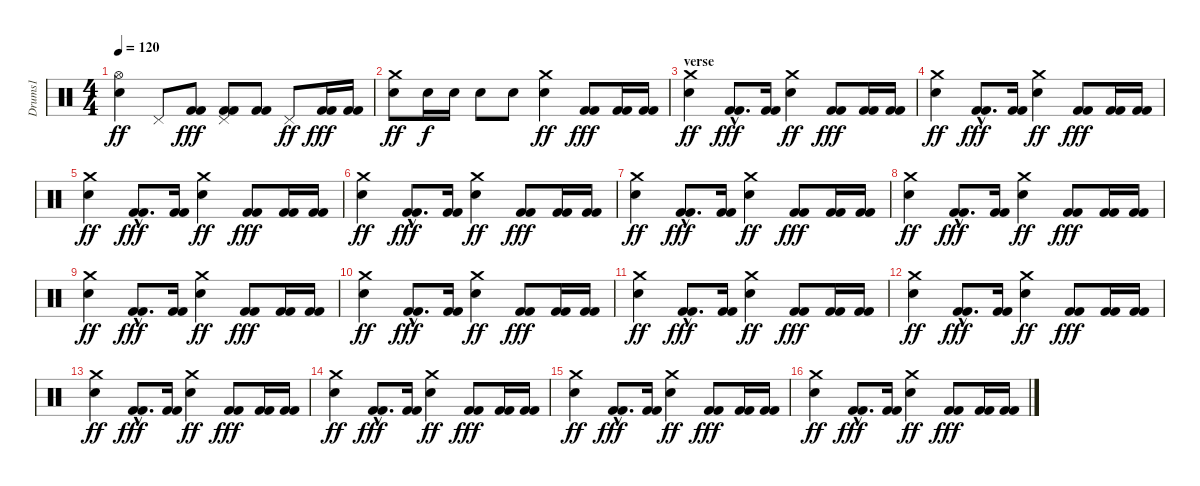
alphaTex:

\track ("Drums1" "Drums1") {instrument percussion}
\staff {score}
\articulation defaults
\ts (4 4)
\tempo 120
\clef neutral
\ks c
("Hi-Hat (open)" "Electric Snare (hit)").4{dy ff} "Pedal Hi-Hat (hit)".8 ("Kick (hit) 2" "Kick (hit) 2").8{dy fff} ("Pedal Hi-Hat (hit)" "Kick (hit) 2" "Kick (hit) 2").8 ("Kick (hit) 2" "Kick (hit) 2").8 "Pedal Hi-Hat (hit)".8{dy ff} ("Kick (hit) 2" "Kick (hit) 2").16{dy fff} ("Kick (hit) 2" "Kick (hit) 2").16 |
("Electric Snare (hit)" "Crash medium (hit)").8{dy ff} "Electric Snare (hit)".16{dy f} "Electric Snare (hit)".16 "Electric Snare (hit)".8 "Electric Snare (hit)".8 ("Electric Snare (hit)" "Crash medium (hit)").4{dy ff} ("Kick (hit) 2" "Kick (hit) 2").8{dy fff} ("Kick (hit) 2" "Kick (hit) 2").16 ("Kick (hit) 2" "Kick (hit) 2").16 |
\section ("" "verse")
("Crash medium (hit)" "Snare (hit) 2").4{dy ff} ("Kick (hit) 2"{hac} "Kick (hit) 2"{hac}).8{d dy fff} ("Kick (hit) 2" "Kick (hit) 2").16 ("Crash medium (hit)" "Snare (hit) 2").4{dy ff} ("Kick (hit) 2" "Kick (hit) 2").8{dy fff} ("Kick (hit) 2" "Kick (hit) 2").16 ("Kick (hit) 2" "Kick (hit) 2").16 |
("Crash medium (hit)" "Snare (hit) 2").4{dy ff} ("Kick (hit) 2"{hac} "Kick (hit) 2"{hac}).8{d dy fff} ("Kick (hit) 2" "Kick (hit) 2").16 ("Crash medium (hit)" "Snare (hit) 2").4{dy ff} ("Kick (hit) 2" "Kick (hit) 2").8{dy fff} ("Kick (hit) 2" "Kick (hit) 2").16 ("Kick (hit) 2" "Kick (hit) 2").16 |
("Crash medium (hit)" "Snare (hit) 2").4{dy ff} ("Kick (hit) 2"{hac} "Kick (hit) 2"{hac}).8{d dy fff} ("Kick (hit) 2" "Kick (hit) 2").16 ("Crash medium (hit)" "Snare (hit) 2").4{dy ff} ("Kick (hit) 2" "Kick (hit) 2").8{dy fff} ("Kick (hit) 2" "Kick (hit) 2").16 ("Kick (hit) 2" "Kick (hit) 2").16 |
("Crash medium (hit)" "Snare (hit) 2").4{dy ff} ("Kick (hit) 2"{hac} "Kick (hit) 2"{hac}).8{d dy fff} ("Kick (hit) 2" "Kick (hit) 2").16 ("Crash medium (hit)" "Snare (hit) 2").4{dy ff} ("Kick (hit) 2" "Kick (hit) 2").8{dy fff} ("Kick (hit) 2" "Kick (hit) 2").16 ("Kick (hit) 2" "Kick (hit) 2").16 |
("Crash medium (hit)" "Snare (hit) 2").4{dy ff} ("Kick (hit) 2"{hac} "Kick (hit) 2"{hac}).8{d dy fff} ("Kick (hit) 2" "Kick (hit) 2").16 ("Crash medium (hit)" "Snare (hit) 2").4{dy ff} ("Kick (hit) 2" "Kick (hit) 2").8{dy fff} ("Kick (hit) 2" "Kick (hit) 2").16 ("Kick (hit) 2" "Kick (hit) 2").16 |
("Crash medium (hit)" "Snare (hit) 2").4{dy ff} ("Kick (hit) 2"{hac} "Kick (hit) 2"{hac}).8{d dy fff} ("Kick (hit) 2" "Kick (hit) 2").16 ("Crash medium (hit)" "Snare (hit) 2").4{dy ff} ("Kick (hit) 2" "Kick (hit) 2").8{dy fff} ("Kick (hit) 2" "Kick (hit) 2").16 ("Kick (hit) 2" "Kick (hit) 2").16 |
("Crash medium (hit)" "Snare (hit) 2").4{dy ff} ("Kick (hit) 2"{hac} "Kick (hit) 2"{hac}).8{d dy fff} ("Kick (hit) 2" "Kick (hit) 2").16 ("Crash medium (hit)" "Snare (hit) 2").4{dy ff} ("Kick (hit) 2" "Kick (hit) 2").8{dy fff} ("Kick (hit) 2" "Kick (hit) 2").16 ("Kick (hit) 2" "Kick (hit) 2").16 |
("Crash medium (hit)" "Snare (hit) 2").4{dy ff} ("Kick (hit) 2"{hac} "Kick (hit) 2"{hac}).8{d dy fff} ("Kick (hit) 2" "Kick (hit) 2").16 ("Crash medium (hit)" "Snare (hit) 2").4{dy ff} ("Kick (hit) 2" "Kick (hit) 2").8{dy fff} ("Kick (hit) 2" "Kick (hit) 2").16 ("Kick (hit) 2" "Kick (hit) 2").16 |
("Crash medium (hit)" "Snare (hit) 2").4{dy ff} ("Kick (hit) 2"{hac} "Kick (hit) 2"{hac}).8{d dy fff} ("Kick (hit) 2" "Kick (hit) 2").16 ("Crash medium (hit)" "Snare (hit) 2").4{dy ff} ("Kick (hit) 2" "Kick (hit) 2").8{dy fff} ("Kick (hit) 2" "Kick (hit) 2").16 ("Kick (hit) 2" "Kick (hit) 2").16 |
("Crash medium (hit)" "Snare (hit) 2").4{dy ff} ("Kick (hit) 2"{hac} "Kick (hit) 2"{hac}).8{d dy fff} ("Kick (hit) 2" "Kick (hit) 2").16 ("Crash medium (hit)" "Snare (hit) 2").4{dy ff} ("Kick (hit) 2" "Kick (hit) 2").8{dy fff} ("Kick (hit) 2" "Kick (hit) 2").16 ("Kick (hit) 2" "Kick (hit) 2").16 |
("Crash medium (hit)" "Snare (hit) 2").4{dy ff} ("Kick (hit) 2"{hac} "Kick (hit) 2"{hac}).8{d dy fff} ("Kick (hit) 2" "Kick (hit) 2").16 ("Crash medium (hit)" "Snare (hit) 2").4{dy ff} ("Kick (hit) 2" "Kick (hit) 2").8{dy fff} ("Kick (hit) 2" "Kick (hit) 2").16 ("Kick (hit) 2" "Kick (hit) 2").16 |
("Crash medium (hit)" "Snare (hit) 2").4{dy ff} ("Kick (hit) 2"{hac} "Kick (hit) 2"{hac}).8{d dy fff} ("Kick (hit) 2" "Kick (hit) 2").16 ("Crash medium (hit)" "Snare (hit) 2").4{dy ff} ("Kick (hit) 2" "Kick (hit) 2").8{dy fff} ("Kick (hit) 2" "Kick (hit) 2").16 ("Kick (hit) 2" "Kick (hit) 2").16 |
("Crash medium (hit)" "Snare (hit) 2").4{dy ff} ("Kick (hit) 2"{hac} "Kick (hit) 2"{hac}).8{d dy fff} ("Kick (hit) 2" "Kick (hit) 2").16 ("Crash medium (hit)" "Snare (hit) 2").4{dy ff} ("Kick (hit) 2" "Kick (hit) 2").8{dy fff} ("Kick (hit) 2" "Kick (hit) 2").16 ("Kick (hit) 2" "Kick (hit) 2").16 |
("Crash medium (hit)" "Snare (hit) 2").4{dy ff} ("Kick (hit) 2"{hac} "Kick (hit) 2"{hac}).8{d dy fff} ("Kick (hit) 2" "Kick (hit) 2").16 ("Crash medium (hit)" "Snare (hit) 2").4{dy ff} ("Kick (hit) 2" "Kick (hit) 2").8{dy fff} ("Kick (hit) 2" "Kick (hit) 2").16 ("Kick (hit) 2" "Kick (hit) 2").16
